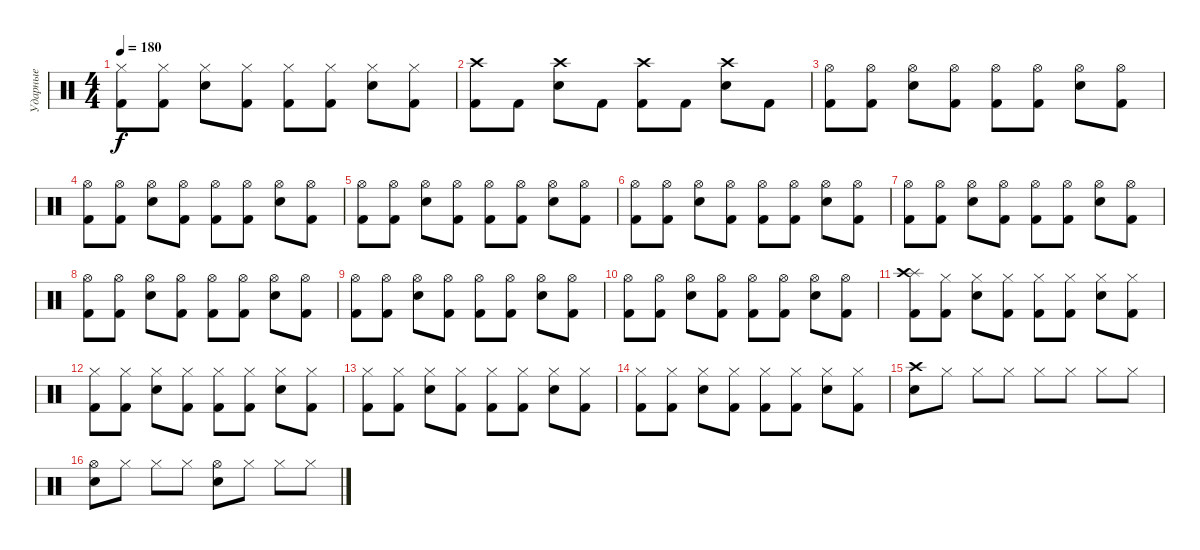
\track ("Ударные" "Ударные") {instrument percussion}
\staff {score}
\articulation defaults
\ts (4 4)
\tempo 180
\clef neutral
\ks c
("Hi-Hat (closed)" "Kick (hit) 2").8{dy f} ("Hi-Hat (closed)" "Kick (hit) 2").8 ("Hi-Hat (closed)" "Snare (hit) 2").8 ("Kick (hit) 2" "Hi-Hat (closed)").8 ("Hi-Hat (closed)" "Kick (hit) 2").8 ("Hi-Hat (closed)" "Kick (hit) 2").8 ("Hi-Hat (closed)" "Snare (hit) 2").8 ("Kick (hit) 2" "Hi-Hat (closed)").8 |
("Crash high (hit)" "Kick (hit) 2").8 "Kick (hit) 2".8 ("Crash high (hit)" "Snare (hit) 2").8 "Kick (hit) 2".8 ("Crash high (hit)" "Kick (hit) 2").8 "Kick (hit) 2".8 ("Crash high (hit)" "Snare (hit) 2").8 "Kick (hit) 2".8 |
("Hi-Hat (open)" "Kick (hit) 2").8 ("Hi-Hat (open)" "Kick (hit) 2").8 ("Hi-Hat (open)" "Electric Snare (hit)").8 ("Hi-Hat (open)" "Kick (hit) 2").8 ("Hi-Hat (open)" "Kick (hit) 2").8 ("Hi-Hat (open)" "Kick (hit) 2").8 ("Hi-Hat (open)" "Snare (hit) 2").8 ("Hi-Hat (open)" "Kick (hit) 2").8 |
("Hi-Hat (open)" "Kick (hit) 2").8 ("Hi-Hat (open)" "Kick (hit) 2").8 ("Hi-Hat (open)" "Electric Snare (hit)").8 ("Hi-Hat (open)" "Kick (hit) 2").8 ("Hi-Hat (open)" "Kick (hit) 2").8 ("Hi-Hat (open)" "Kick (hit) 2").8 ("Hi-Hat (open)" "Snare (hit) 2").8 ("Hi-Hat (open)" "Kick (hit) 2").8 |
("Hi-Hat (open)" "Kick (hit) 2").8 ("Hi-Hat (open)" "Kick (hit) 2").8 ("Hi-Hat (open)" "Electric Snare (hit)").8 ("Hi-Hat (open)" "Kick (hit) 2").8 ("Hi-Hat (open)" "Kick (hit) 2").8 ("Hi-Hat (open)" "Kick (hit) 2").8 ("Hi-Hat (open)" "Snare (hit) 2").8 ("Hi-Hat (open)" "Kick (hit) 2").8 |
("Hi-Hat (open)" "Kick (hit) 2").8 ("Hi-Hat (open)" "Kick (hit) 2").8 ("Hi-Hat (open)" "Electric Snare (hit)").8 ("Hi-Hat (open)" "Kick (hit) 2").8 ("Hi-Hat (open)" "Kick (hit) 2").8 ("Hi-Hat (open)" "Kick (hit) 2").8 ("Hi-Hat (open)" "Snare (hit) 2").8 ("Hi-Hat (open)" "Kick (hit) 2").8 |
("Hi-Hat (open)" "Kick (hit) 2").8 ("Hi-Hat (open)" "Kick (hit) 2").8 ("Hi-Hat (open)" "Electric Snare (hit)").8 ("Hi-Hat (open)" "Kick (hit) 2").8 ("Hi-Hat (open)" "Kick (hit) 2").8 ("Hi-Hat (open)" "Kick (hit) 2").8 ("Hi-Hat (open)" "Snare (hit) 2").8 ("Hi-Hat (open)" "Kick (hit) 2").8 |
("Hi-Hat (open)" "Kick (hit) 2").8 ("Hi-Hat (open)" "Kick (hit) 2").8 ("Hi-Hat (open)" "Electric Snare (hit)").8 ("Hi-Hat (open)" "Kick (hit) 2").8 ("Hi-Hat (open)" "Kick (hit) 2").8 ("Hi-Hat (open)" "Kick (hit) 2").8 ("Hi-Hat (open)" "Snare (hit) 2").8 ("Hi-Hat (open)" "Kick (hit) 2").8 |
("Hi-Hat (open)" "Kick (hit) 2").8 ("Hi-Hat (open)" "Kick (hit) 2").8 ("Hi-Hat (open)" "Electric Snare (hit)").8 ("Hi-Hat (open)" "Kick (hit) 2").8 ("Hi-Hat (open)" "Kick (hit) 2").8 ("Hi-Hat (open)" "Kick (hit) 2").8 ("Hi-Hat (open)" "Snare (hit) 2").8 ("Hi-Hat (open)" "Kick (hit) 2").8 |
("Hi-Hat (open)" "Kick (hit) 2").8 ("Hi-Hat (open)" "Kick (hit) 2").8 ("Hi-Hat (open)" "Electric Snare (hit)").8 ("Hi-Hat (open)" "Kick (hit) 2").8 ("Hi-Hat (open)" "Kick (hit) 2").8 ("Hi-Hat (open)" "Kick (hit) 2").8 ("Hi-Hat (open)" "Snare (hit) 2").8 ("Hi-Hat (open)" "Kick (hit) 2").8 |
("Splash (hit)" "Crash high (hit)" "Kick (hit) 2").8 ("Hi-Hat (closed)" "Kick (hit) 2").8 ("Hi-Hat (closed)" "Snare (hit) 2").8 ("Kick (hit) 2" "Hi-Hat (closed)").8 ("Hi-Hat (closed)" "Kick (hit) 2").8 ("Hi-Hat (closed)" "Kick (hit) 2").8 ("Hi-Hat (closed)" "Snare (hit) 2").8 ("Kick (hit) 2" "Hi-Hat (closed)").8 |
("Hi-Hat (closed)" "Kick (hit) 2").8 ("Hi-Hat (closed)" "Kick (hit) 2").8 ("Hi-Hat (closed)" "Snare (hit) 2").8 ("Kick (hit) 2" "Hi-Hat (closed)").8 ("Hi-Hat (closed)" "Kick (hit) 2").8 ("Hi-Hat (closed)" "Kick (hit) 2").8 ("Hi-Hat (closed)" "Snare (hit) 2").8 ("Kick (hit) 2" "Hi-Hat (closed)").8 |
("Hi-Hat (closed)" "Kick (hit) 2").8 ("Hi-Hat (closed)" "Kick (hit) 2").8 ("Hi-Hat (closed)" "Snare (hit) 2").8 ("Kick (hit) 2" "Hi-Hat (closed)").8 ("Hi-Hat (closed)" "Kick (hit) 2").8 ("Hi-Hat (closed)" "Kick (hit) 2").8 ("Hi-Hat (closed)" "Snare (hit) 2").8 ("Kick (hit) 2" "Hi-Hat (closed)").8 |
("Hi-Hat (closed)" "Kick (hit) 2").8 ("Hi-Hat (closed)" "Kick (hit) 2").8 ("Hi-Hat (closed)" "Snare (hit) 2").8 ("Kick (hit) 2" "Hi-Hat (closed)").8 ("Hi-Hat (closed)" "Kick (hit) 2").8 ("Hi-Hat (closed)" "Kick (hit) 2").8 ("Hi-Hat (closed)" "Snare (hit) 2").8 ("Kick (hit) 2" "Hi-Hat (closed)").8 |
("Electric Snare (hit)" "Crash high (hit)").8 "Hi-Hat (closed)".8 "Hi-Hat (closed)".8 "Hi-Hat (closed)".8 "Hi-Hat (closed)".8 "Hi-Hat (closed)".8 "Hi-Hat (closed)".8 "Hi-Hat (closed)".8 |
("Electric Snare (hit)" "Hi-Hat (open)").8 "Hi-Hat (closed)".8 "Hi-Hat (closed)".8 "Hi-Hat (closed)".8 ("Snare (hit) 2" "Hi-Hat (open)").8 "Hi-Hat (closed)".8 "Hi-Hat (closed)".8 "Hi-Hat (closed)".8
